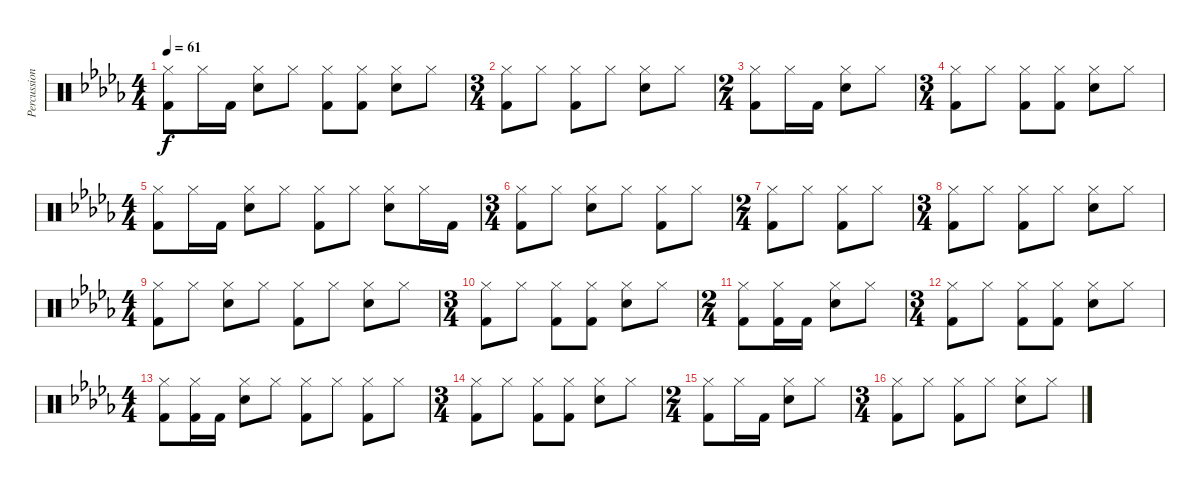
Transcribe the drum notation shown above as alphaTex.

\track ("Percussions" "Percussion") {instrument percussion}
\staff {score}
\articulation defaults
\ts (4 4)
\tempo 61
\clef neutral
\ks db
("Hi-Hat (closed)" "Kick (hit) 2").8{dy f} "Hi-Hat (closed)".16 "Kick (hit) 2".16 ("Hi-Hat (closed)" "Electric Snare (hit)").8 "Hi-Hat (closed)".8 ("Hi-Hat (closed)" "Kick (hit) 2").8 ("Hi-Hat (closed)" "Kick (hit) 2").8 ("Hi-Hat (closed)" "Electric Snare (hit)").8 "Hi-Hat (closed)".8 |
\ts (3 4)
("Hi-Hat (closed)" "Kick (hit) 2").8 "Hi-Hat (closed)".8 ("Hi-Hat (closed)" "Kick (hit) 2").8 "Hi-Hat (closed)".8 ("Hi-Hat (closed)" "Electric Snare (hit)").8 "Hi-Hat (closed)".8 |
\ts (2 4)
("Hi-Hat (closed)" "Kick (hit) 2").8 "Hi-Hat (closed)".16 "Kick (hit) 2".16 ("Hi-Hat (closed)" "Electric Snare (hit)").8 "Hi-Hat (closed)".8 |
\ts (3 4)
("Hi-Hat (closed)" "Kick (hit) 2").8 "Hi-Hat (closed)".8 ("Hi-Hat (closed)" "Kick (hit) 2").8 ("Hi-Hat (closed)" "Kick (hit) 2").8 ("Hi-Hat (closed)" "Electric Snare (hit)").8 "Hi-Hat (closed)".8 |
\ts (4 4)
("Hi-Hat (closed)" "Kick (hit) 2").8 "Hi-Hat (closed)".16 "Kick (hit) 2".16 ("Hi-Hat (closed)" "Electric Snare (hit)").8 "Hi-Hat (closed)".8 ("Hi-Hat (closed)" "Kick (hit) 2").8 "Hi-Hat (closed)".8 ("Hi-Hat (closed)" "Electric Snare (hit)").8 "Hi-Hat (closed)".16 "Kick (hit) 2".16 |
\ts (3 4)
("Hi-Hat (closed)" "Kick (hit) 2").8 "Hi-Hat (closed)".8 ("Hi-Hat (closed)" "Electric Snare (hit)").8 "Hi-Hat (closed)".8 ("Hi-Hat (closed)" "Kick (hit) 2").8 "Hi-Hat (closed)".8 |
\ts (2 4)
("Hi-Hat (closed)" "Kick (hit) 2").8 "Hi-Hat (closed)".8 ("Hi-Hat (closed)" "Kick (hit) 2").8 "Hi-Hat (closed)".8 |
\ts (3 4)
("Hi-Hat (closed)" "Kick (hit) 2").8 "Hi-Hat (closed)".8 ("Hi-Hat (closed)" "Kick (hit) 2").8 "Hi-Hat (closed)".8 ("Hi-Hat (closed)" "Electric Snare (hit)").8 "Hi-Hat (closed)".8 |
\ts (4 4)
("Hi-Hat (closed)" "Kick (hit) 2").8 "Hi-Hat (closed)".8 ("Hi-Hat (closed)" "Electric Snare (hit)").8 "Hi-Hat (closed)".8 ("Hi-Hat (closed)" "Kick (hit) 2").8 "Hi-Hat (closed)".8 ("Hi-Hat (closed)" "Electric Snare (hit)").8 "Hi-Hat (closed)".8 |
\ts (3 4)
("Hi-Hat (closed)" "Kick (hit) 2").8 "Hi-Hat (closed)".8 ("Hi-Hat (closed)" "Kick (hit) 2").8 ("Hi-Hat (closed)" "Kick (hit) 2").8 ("Hi-Hat (closed)" "Electric Snare (hit)").8 "Hi-Hat (closed)".8 |
\ts (2 4)
("Hi-Hat (closed)" "Kick (hit) 2").8 ("Hi-Hat (closed)" "Kick (hit) 2").16 "Kick (hit) 2".16 ("Hi-Hat (closed)" "Electric Snare (hit)").8 "Hi-Hat (closed)".8 |
\ts (3 4)
("Hi-Hat (closed)" "Kick (hit) 2").8 "Hi-Hat (closed)".8 ("Hi-Hat (closed)" "Kick (hit) 2").8 ("Hi-Hat (closed)" "Kick (hit) 2").8 ("Hi-Hat (closed)" "Electric Snare (hit)").8 "Hi-Hat (closed)".8 |
\ts (4 4)
("Hi-Hat (closed)" "Kick (hit) 2").8 ("Hi-Hat (closed)" "Kick (hit) 2").16 "Kick (hit) 2".16 ("Hi-Hat (closed)" "Electric Snare (hit)").8 "Hi-Hat (closed)".8 ("Hi-Hat (closed)" "Kick (hit) 2").8 "Hi-Hat (closed)".8 ("Hi-Hat (closed)" "Kick (hit) 2").8 "Hi-Hat (closed)".8 |
\ts (3 4)
("Hi-Hat (closed)" "Kick (hit) 2").8 "Hi-Hat (closed)".8 ("Hi-Hat (closed)" "Kick (hit) 2").8 ("Hi-Hat (closed)" "Kick (hit) 2").8 ("Hi-Hat (closed)" "Electric Snare (hit)").8 "Hi-Hat (closed)".8 |
\ts (2 4)
("Hi-Hat (closed)" "Kick (hit) 2").8 "Hi-Hat (closed)".16 "Kick (hit) 2".16 ("Hi-Hat (closed)" "Electric Snare (hit)").8 "Hi-Hat (closed)".8 |
\ts (3 4)
("Hi-Hat (closed)" "Kick (hit) 2").8 "Hi-Hat (closed)".8 ("Hi-Hat (closed)" "Kick (hit) 2").8 "Hi-Hat (closed)".8 ("Hi-Hat (closed)" "Electric Snare (hit)").8 "Hi-Hat (closed)".8
